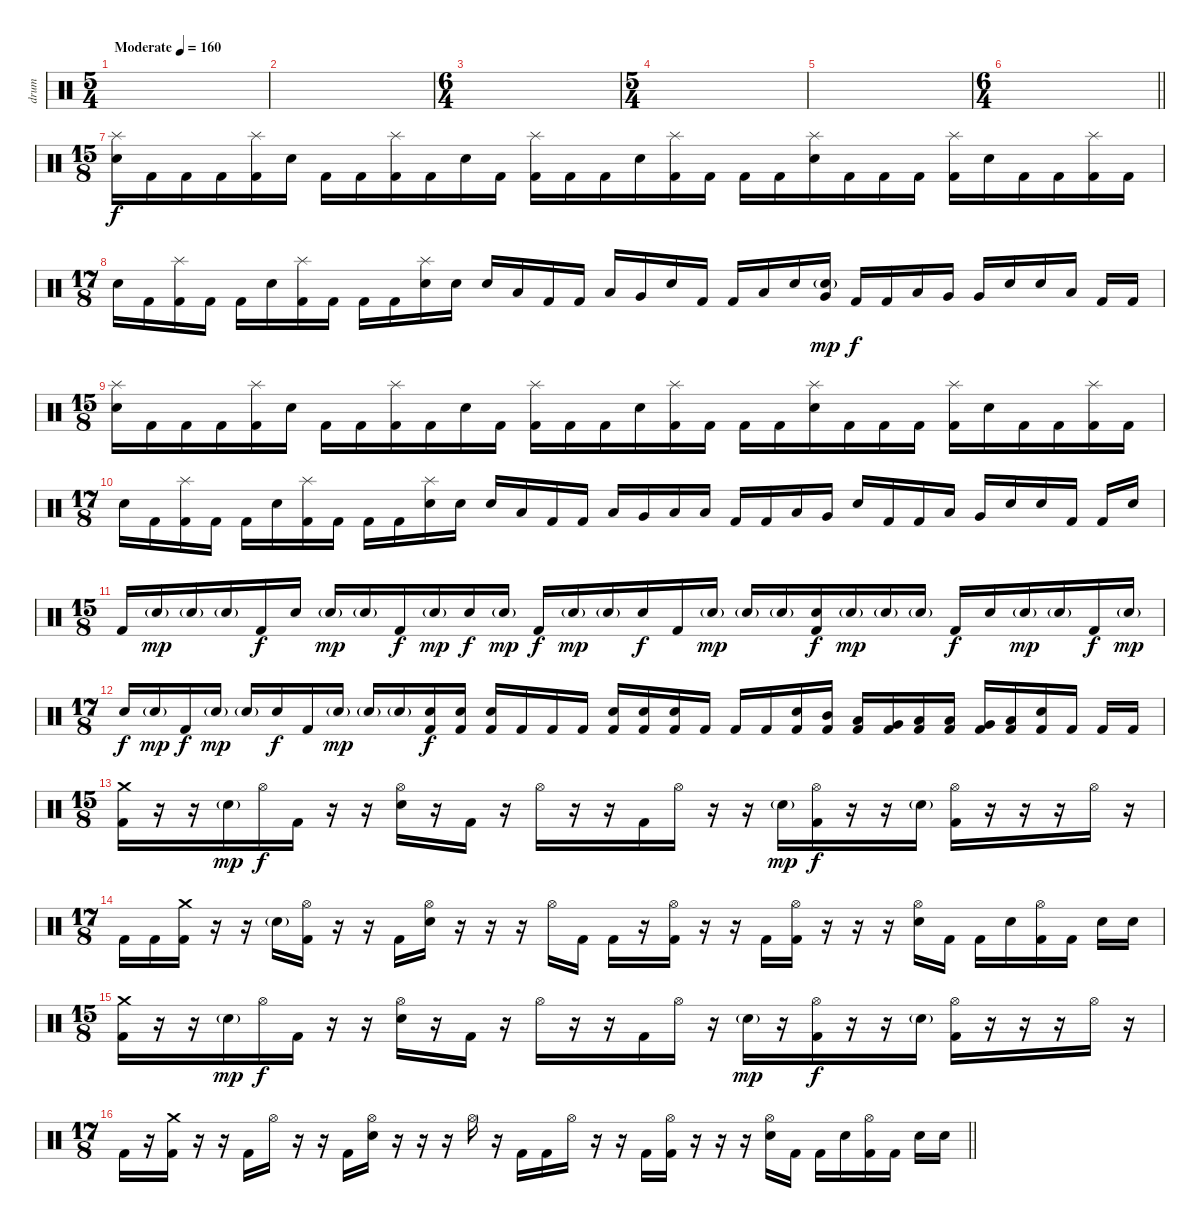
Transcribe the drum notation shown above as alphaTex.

\track ("drum" "drum") {instrument percussion}
\staff {score}
\articulation defaults
\ts (5 4)
\section ("" "")
\tempo (160 "Moderate")
\clef neutral
\ks c
|
|
\ts (6 4)
|
\ts (5 4)
|
|
\ts (6 4)
\barLineRight lightlight
|
\ts (15 8)
\section ("" "")
("Splash (hit)" "Electric Snare (hit)").16 "Kick (hit) 2".16 "Kick (hit) 2".16 "Kick (hit) 2".16 ("Splash (hit)" "Kick (hit) 2").16 "Electric Snare (hit)".16 "Kick (hit) 2".16 "Kick (hit) 2".16 ("Splash (hit)" "Kick (hit) 2").16 "Kick (hit) 2".16 "Electric Snare (hit)".16 "Kick (hit) 2".16 ("Splash (hit)" "Kick (hit) 2").16 "Kick (hit) 2".16 "Kick (hit) 2".16 "Electric Snare (hit)".16 ("Splash (hit)" "Kick (hit) 2").16 "Kick (hit) 2".16 "Kick (hit) 2".16 "Kick (hit) 2".16 ("Splash (hit)" "Electric Snare (hit)").16 "Kick (hit) 2".16 "Kick (hit) 2".16 "Kick (hit) 2".16 ("Splash (hit)" "Kick (hit) 2").16 "Electric Snare (hit)".16 "Kick (hit) 2".16 "Kick (hit) 2".16 ("Splash (hit)" "Kick (hit) 2").16 "Kick (hit) 2".16 |
\ts (17 8)
"Electric Snare (hit)".16 "Kick (hit) 2".16 ("Splash (hit)" "Kick (hit) 2").16 "Kick (hit) 2".16 "Kick (hit) 2".16 "Electric Snare (hit)".16 ("Splash (hit)" "Kick (hit) 2").16 "Kick (hit) 2".16 "Kick (hit) 2".16 "Kick (hit) 2".16 ("Splash (hit)" "Electric Snare (hit)").16 "Electric Snare (hit)".16 "Electric Snare (hit)".16 "Low Tom (hit)".16 "Kick (hit) 2".16 "Kick (hit) 2".16 "Low Tom (hit)".16 "Very Low Tom (hit)".16 "Electric Snare (hit)".16 "Kick (hit) 2".16 "Kick (hit) 2".16 "Low Tom (hit)".16 "Electric Snare (hit)".16 ("Very Low Tom (hit)" "Electric Snare (hit)"{g}).16{dy mp} "Kick (hit) 2".16{dy f} "Kick (hit) 2".16 "Low Tom (hit)".16 "Very Low Tom (hit)".16 "Very Low Tom (hit)".16 "Electric Snare (hit)".16 "Electric Snare (hit)".16 "Low Tom (hit)".16 "Kick (hit) 2".16 "Kick (hit) 2".16 |
\ts (15 8)
("Splash (hit)" "Electric Snare (hit)").16 "Kick (hit) 2".16 "Kick (hit) 2".16 "Kick (hit) 2".16 ("Splash (hit)" "Kick (hit) 2").16 "Electric Snare (hit)".16 "Kick (hit) 2".16 "Kick (hit) 2".16 ("Splash (hit)" "Kick (hit) 2").16 "Kick (hit) 2".16 "Electric Snare (hit)".16 "Kick (hit) 2".16 ("Splash (hit)" "Kick (hit) 2").16 "Kick (hit) 2".16 "Kick (hit) 2".16 "Electric Snare (hit)".16 ("Splash (hit)" "Kick (hit) 2").16 "Kick (hit) 2".16 "Kick (hit) 2".16 "Kick (hit) 2".16 ("Splash (hit)" "Electric Snare (hit)").16 "Kick (hit) 2".16 "Kick (hit) 2".16 "Kick (hit) 2".16 ("Splash (hit)" "Kick (hit) 2").16 "Electric Snare (hit)".16 "Kick (hit) 2".16 "Kick (hit) 2".16 ("Splash (hit)" "Kick (hit) 2").16 "Kick (hit) 2".16 |
\ts (17 8)
"Electric Snare (hit)".16 "Kick (hit) 2".16 ("Splash (hit)" "Kick (hit) 2").16 "Kick (hit) 2".16 "Kick (hit) 2".16 "Electric Snare (hit)".16 ("Splash (hit)" "Kick (hit) 2").16 "Kick (hit) 2".16 "Kick (hit) 2".16 "Kick (hit) 2".16 ("Splash (hit)" "Electric Snare (hit)").16 "Electric Snare (hit)".16 "Electric Snare (hit)".16 "Low Tom (hit)".16 "Kick (hit) 2".16 "Kick (hit) 2".16 "Low Tom (hit)".16 "Very Low Tom (hit)".16 "Low Tom (hit)".16 "Low Floor Tom (hit)".16 "Kick (hit) 2".16 "Kick (hit) 2".16 "Low Tom (hit)".16 "Very Low Tom (hit)".16 "Electric Snare (hit)".16 "Kick (hit) 2".16 "Kick (hit) 2".16 "Low Tom (hit)".16 "Very Low Tom (hit)".16 "Electric Snare (hit)".16 "Electric Snare (hit)".16 "Kick (hit) 2".16 "Kick (hit) 2".16 "Electric Snare (hit)".16 |
\ts (15 8)
"Kick (hit) 2".16 "Electric Snare (hit)"{g}.16{dy mp} "Electric Snare (hit)"{g}.16 "Electric Snare (hit)"{g}.16 "Kick (hit) 2".16{dy f} "Electric Snare (hit)".16 "Electric Snare (hit)"{g}.16{dy mp} "Electric Snare (hit)"{g}.16 "Kick (hit) 2".16{dy f} "Electric Snare (hit)"{g}.16{dy mp} "Electric Snare (hit)".16{dy f} "Electric Snare (hit)"{g}.16{dy mp} "Kick (hit) 2".16{dy f} "Electric Snare (hit)"{g}.16{dy mp} "Electric Snare (hit)"{g}.16 "Electric Snare (hit)".16{dy f} "Kick (hit) 2".16 "Electric Snare (hit)"{g}.16{dy mp} "Electric Snare (hit)"{g}.16 "Electric Snare (hit)"{g}.16 ("Electric Snare (hit)" "Kick (hit) 2").16{dy f} "Electric Snare (hit)"{g}.16{dy mp} "Electric Snare (hit)"{g}.16 "Electric Snare (hit)"{g}.16 "Kick (hit) 2".16{dy f} "Electric Snare (hit)".16 "Electric Snare (hit)"{g}.16{dy mp} "Electric Snare (hit)"{g}.16 "Kick (hit) 2".16{dy f} "Electric Snare (hit)"{g}.16{dy mp} |
\ts (17 8)
"Electric Snare (hit)".16{dy f} "Electric Snare (hit)"{g}.16{dy mp} "Kick (hit) 2".16{dy f} "Electric Snare (hit)"{g}.16{dy mp} "Electric Snare (hit)"{g}.16 "Electric Snare (hit)".16{dy f} "Kick (hit) 2".16 "Electric Snare (hit)"{g}.16{dy mp} "Electric Snare (hit)"{g}.16 "Electric Snare (hit)"{g}.16 ("Electric Snare (hit)" "Kick (hit) 2").16{dy f} ("Electric Snare (hit)" "Kick (hit) 2").16 ("Electric Snare (hit)" "Kick (hit) 2").16 "Kick (hit) 2".16 "Kick (hit) 2".16 "Kick (hit) 2".16 ("Electric Snare (hit)" "Kick (hit) 2").16 ("Electric Snare (hit)" "Kick (hit) 2").16 ("Electric Snare (hit)" "Kick (hit) 2").16 "Kick (hit) 2".16 "Kick (hit) 2".16 "Kick (hit) 2".16 ("Electric Snare (hit)" "Kick (hit) 2").16 ("Mid Tom (hit)" "Kick (hit) 2").16 ("Low Tom (hit)" "Kick (hit) 2").16 ("Very Low Tom (hit)" "Kick (hit) 2").16 ("Low Floor Tom (hit)" "Kick (hit) 2").16 ("Low Tom (hit)" "Kick (hit) 2").16 ("Very Low Tom (hit)" "Kick (hit) 2").16 ("Low Floor Tom (hit)" "Kick (hit) 2").16 ("Electric Snare (hit)" "Kick (hit) 2").16 "Kick (hit) 2".16 "Kick (hit) 2".16 "Kick (hit) 2".16 |
\ts (15 8)
("Crash medium (hit)" "Kick (hit) 2").16 r.16 r.16 "Electric Snare (hit)"{g}.16{dy mp} "Hi-Hat (open)".16{dy f} "Kick (hit) 2".16 r.16 r.16 ("Hi-Hat (open)" "Electric Snare (hit)").16 r.16 "Kick (hit) 2".16 r.16 "Hi-Hat (open)".16 r.16 r.16 "Kick (hit) 2".16 "Hi-Hat (open)".16 r.16 r.16 "Electric Snare (hit)"{g}.16{dy mp} ("Hi-Hat (open)" "Kick (hit) 2").16{dy f} r.16 r.16 "Electric Snare (hit)"{g}.16 ("Hi-Hat (open)" "Kick (hit) 2").16 r.16 r.16 r.16 "Hi-Hat (open)".16 r.16 |
\ts (17 8)
"Kick (hit) 2".16 "Kick (hit) 2".16 ("Crash medium (hit)" "Kick (hit) 2").16 r.16 r.16 "Electric Snare (hit)"{g}.16 ("Hi-Hat (open)" "Kick (hit) 2").16 r.16 r.16 "Kick (hit) 2".16 ("Hi-Hat (open)" "Electric Snare (hit)").16 r.16 r.16 r.16 "Hi-Hat (open)".16 "Kick (hit) 2".16 "Kick (hit) 2".16 r.16 ("Hi-Hat (open)" "Kick (hit) 2").16 r.16 r.16 "Kick (hit) 2".16 ("Hi-Hat (open)" "Kick (hit) 2").16 r.16 r.16 r.16 ("Hi-Hat (open)" "Electric Snare (hit)").16 "Kick (hit) 2".16 "Kick (hit) 2".16 "Electric Snare (hit)".16 ("Hi-Hat (open)" "Kick (hit) 2").16 "Kick (hit) 2".16 "Electric Snare (hit)".16 "Electric Snare (hit)".16 |
\ts (15 8)
("Crash medium (hit)" "Kick (hit) 2").16 r.16 r.16 "Electric Snare (hit)"{g}.16{dy mp} "Hi-Hat (open)".16{dy f} "Kick (hit) 2".16 r.16 r.16 ("Hi-Hat (open)" "Electric Snare (hit)").16 r.16 "Kick (hit) 2".16 r.16 "Hi-Hat (open)".16 r.16 r.16 "Kick (hit) 2".16 "Hi-Hat (open)".16 r.16 "Electric Snare (hit)"{g}.16{dy mp} r.16 ("Hi-Hat (open)" "Kick (hit) 2").16{dy f} r.16 r.16 "Electric Snare (hit)"{g}.16 ("Hi-Hat (open)" "Kick (hit) 2").16 r.16 r.16 r.16 "Hi-Hat (open)".16 r.16 |
\ts (17 8)
\barLineRight lightlight "Kick (hit) 2".16
r.16 ("Crash medium (hit)" "Kick (hit) 2").16 r.16 r.16 "Kick (hit) 2".16 "Hi-Hat (open)".16 r.16 r.16 "Kick (hit) 2".16 ("Hi-Hat (open)" "Electric Snare (hit)").16 r.16 r.16 r.16 "Hi-Hat (open)".16 r.16 "Kick (hit) 2".16 "Kick (hit) 2".16 "Hi-Hat (open)".16 r.16 r.16 "Kick (hit) 2".16 ("Hi-Hat (open)" "Kick (hit) 2").16 r.16 r.16 r.16 ("Hi-Hat (open)" "Electric Snare (hit)").16 "Kick (hit) 2".16 "Kick (hit) 2".16 "Electric Snare (hit)".16 ("Hi-Hat (open)" "Kick (hit) 2").16 "Kick (hit) 2".16 "Electric Snare (hit)".16 "Electric Snare (hit)".16
